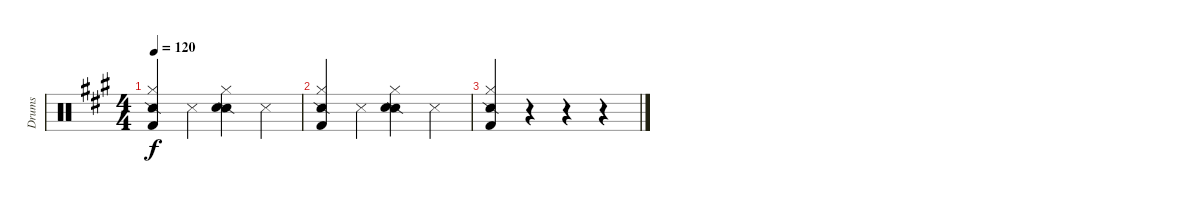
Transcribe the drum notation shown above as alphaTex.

\track ("Drums" "Drums") {instrument percussion}
\staff {score}
\articulation defaults
\ts (4 4)
\tempo 120
\clef neutral
\ks a
("Snare (side stick) 2" "Hi-Hat (closed)" "Kick (hit) 2").4{dy f} "Snare (side stick) 3".4 ("Snare (side stick) 2" "Hi-Hat (closed)" "Electric Snare (hit)").4 "Snare (side stick) 3".4 |
("Snare (side stick) 2" "Hi-Hat (closed)" "Kick (hit) 2").4 "Snare (side stick) 3".4 ("Snare (side stick) 2" "Hi-Hat (closed)" "Electric Snare (hit)").4 "Snare (side stick) 3".4 |
("Snare (side stick) 2" "Hi-Hat (closed)" "Kick (hit) 2").4 r.4 r.4 r.4
